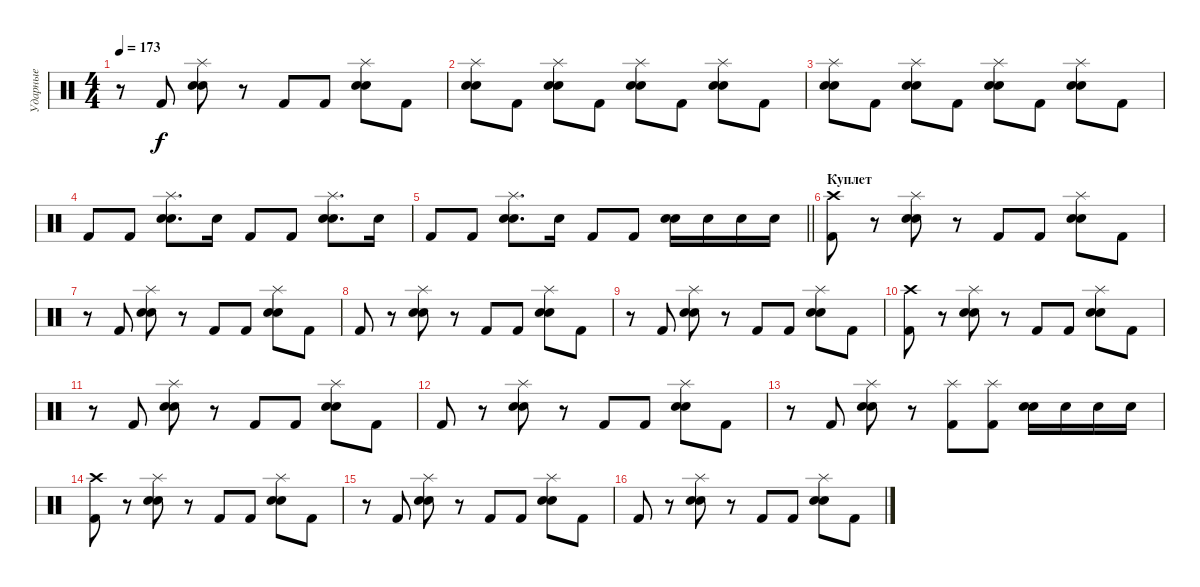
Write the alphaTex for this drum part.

\track ("Ударные" "Ударные") {instrument percussion}
\staff {score}
\articulation defaults
\ts (4 4)
\tempo 173
\clef neutral
\ks c
r.8{dy f} "Kick (hit) 2".8 ("Splash (hit)" "Electric Snare (hit)" "Snare (hit) 2").8 r.8 "Kick (hit) 2".8 "Kick (hit) 2".8 ("Splash (hit)" "Electric Snare (hit)" "Snare (hit) 2").8 "Kick (hit) 2".8 |
("Splash (hit)" "Electric Snare (hit)" "Snare (hit) 2").8 "Kick (hit) 2".8 ("Splash (hit)" "Electric Snare (hit)" "Snare (hit) 2").8 "Kick (hit) 2".8 ("Splash (hit)" "Electric Snare (hit)" "Snare (hit) 2").8 "Kick (hit) 2".8 ("Splash (hit)" "Electric Snare (hit)" "Snare (hit) 2").8 "Kick (hit) 2".8 |
("Splash (hit)" "Electric Snare (hit)" "Snare (hit) 2").8 "Kick (hit) 2".8 ("Splash (hit)" "Electric Snare (hit)" "Snare (hit) 2").8 "Kick (hit) 2".8 ("Splash (hit)" "Electric Snare (hit)" "Snare (hit) 2").8 "Kick (hit) 2".8 ("Splash (hit)" "Electric Snare (hit)" "Snare (hit) 2").8 "Kick (hit) 2".8 |
"Kick (hit) 2".8 "Kick (hit) 2".8 ("Splash (hit)" "Electric Snare (hit)" "Snare (hit) 2").8{d} "Electric Snare (hit)".16 "Kick (hit) 2".8 "Kick (hit) 2".8 ("Splash (hit)" "Electric Snare (hit)" "Snare (hit) 2").8{d} "Electric Snare (hit)".16 |
\barLineRight lightlight "Kick (hit) 2".8 "Kick (hit) 2".8
("Splash (hit)" "Electric Snare (hit)" "Snare (hit) 2").8{d} "Electric Snare (hit)".16 "Kick (hit) 2".8 "Kick (hit) 2".8 ("Electric Snare (hit)" "Snare (hit) 2").16 "Electric Snare (hit)".16 "Electric Snare (hit)".16 "Electric Snare (hit)".16 |
\section ("" "Куплет")
("Crash high (hit)" "Kick (hit) 2").8 r.8 ("Splash (hit)" "Electric Snare (hit)" "Snare (hit) 2").8 r.8 "Kick (hit) 2".8 "Kick (hit) 2".8 ("Splash (hit)" "Electric Snare (hit)" "Snare (hit) 2").8 "Kick (hit) 2".8 |
r.8 "Kick (hit) 2".8 ("Splash (hit)" "Electric Snare (hit)" "Snare (hit) 2").8 r.8 "Kick (hit) 2".8 "Kick (hit) 2".8 ("Splash (hit)" "Electric Snare (hit)" "Snare (hit) 2").8 "Kick (hit) 2".8 |
"Kick (hit) 2".8 r.8 ("Splash (hit)" "Electric Snare (hit)" "Snare (hit) 2").8 r.8 "Kick (hit) 2".8 "Kick (hit) 2".8 ("Splash (hit)" "Electric Snare (hit)" "Snare (hit) 2").8 "Kick (hit) 2".8 |
r.8 "Kick (hit) 2".8 ("Splash (hit)" "Electric Snare (hit)" "Snare (hit) 2").8 r.8 "Kick (hit) 2".8 "Kick (hit) 2".8 ("Splash (hit)" "Electric Snare (hit)" "Snare (hit) 2").8 "Kick (hit) 2".8 |
("Crash high (hit)" "Kick (hit) 2").8 r.8 ("Splash (hit)" "Electric Snare (hit)" "Snare (hit) 2").8 r.8 "Kick (hit) 2".8 "Kick (hit) 2".8 ("Splash (hit)" "Electric Snare (hit)" "Snare (hit) 2").8 "Kick (hit) 2".8 |
r.8 "Kick (hit) 2".8 ("Splash (hit)" "Electric Snare (hit)" "Snare (hit) 2").8 r.8 "Kick (hit) 2".8 "Kick (hit) 2".8 ("Splash (hit)" "Electric Snare (hit)" "Snare (hit) 2").8 "Kick (hit) 2".8 |
"Kick (hit) 2".8 r.8 ("Splash (hit)" "Electric Snare (hit)" "Snare (hit) 2").8 r.8 "Kick (hit) 2".8 "Kick (hit) 2".8 ("Splash (hit)" "Electric Snare (hit)" "Snare (hit) 2").8 "Kick (hit) 2".8 |
r.8 "Kick (hit) 2".8 ("Splash (hit)" "Electric Snare (hit)" "Snare (hit) 2").8 r.8 ("Splash (hit)" "Kick (hit) 2").8 ("Splash (hit)" "Kick (hit) 2").8 ("Electric Snare (hit)" "Snare (hit) 2").16 "Electric Snare (hit)".16 "Electric Snare (hit)".16 "Electric Snare (hit)".16 |
("Crash high (hit)" "Kick (hit) 2").8 r.8 ("Splash (hit)" "Electric Snare (hit)" "Snare (hit) 2").8 r.8 "Kick (hit) 2".8 "Kick (hit) 2".8 ("Splash (hit)" "Electric Snare (hit)" "Snare (hit) 2").8 "Kick (hit) 2".8 |
r.8 "Kick (hit) 2".8 ("Splash (hit)" "Electric Snare (hit)" "Snare (hit) 2").8 r.8 "Kick (hit) 2".8 "Kick (hit) 2".8 ("Splash (hit)" "Electric Snare (hit)" "Snare (hit) 2").8 "Kick (hit) 2".8 |
"Kick (hit) 2".8 r.8 ("Splash (hit)" "Electric Snare (hit)" "Snare (hit) 2").8 r.8 "Kick (hit) 2".8 "Kick (hit) 2".8 ("Splash (hit)" "Electric Snare (hit)" "Snare (hit) 2").8 "Kick (hit) 2".8
